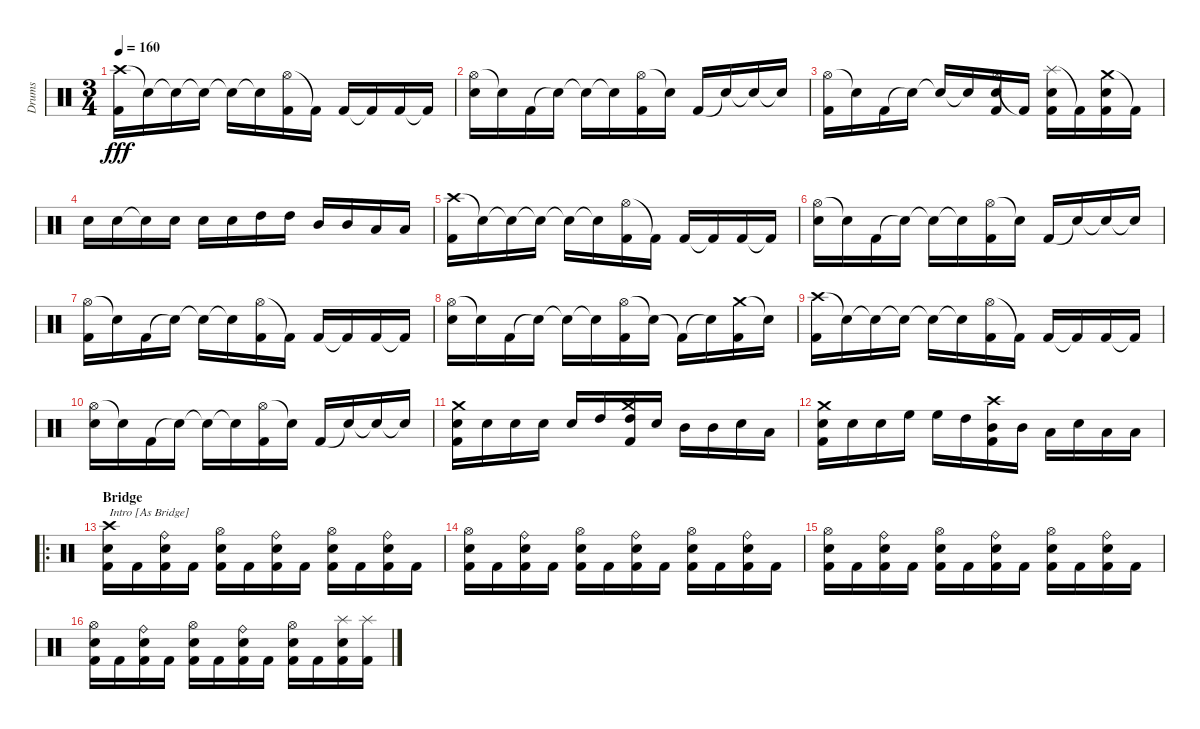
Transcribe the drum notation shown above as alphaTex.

\track ("Drums" "Drums") {instrument percussion}
\staff {score}
\articulation defaults
\ts (3 4)
\tempo 160
\clef neutral
\ks c
("Crash high (hit)" "Kick (hit) 2").16{dy fff} "Snare (hit)"{t}.16 "Snare (hit)"{t}.16 "Snare (hit)"{t}.16 "Snare (hit)"{t}.16 "Snare (hit)"{t}.16 ("Hi-Hat (open)" "Kick (hit) 2").16 "Kick (hit) 2"{t}.16 "Kick (hit) 2".16 "Kick (hit) 2"{t}.16 "Kick (hit) 2".16 "Kick (hit) 2"{t}.16 |
("Hi-Hat (open)" "Electric Snare (hit)").16 "Snare (hit)"{t}.16 "Kick (hit) 2".16 "Snare (hit)"{t}.16 "Snare (hit)"{t}.16 "Snare (hit)"{t}.16 ("Hi-Hat (open)" "Kick (hit) 2").16 "Snare (hit)"{t}.16 "Kick (hit) 2".16 "Snare (hit)"{t}.16 "Snare (hit)"{t}.16 "Snare (hit)"{t}.16 |
("Hi-Hat (open)" "Kick (hit) 2").16 "Snare (hit)"{t}.16 "Kick (hit) 2".16 "Snare (hit)"{t}.16 "Snare (hit)"{t}.16 "Snare (hit)"{t}.16 ("Hi-Hat (open)" "Electric Snare (hit)" "Kick (hit) 2").16 "Kick (hit) 2"{t}.16 ("Splash (hit)" "Electric Snare (hit)" "Kick (hit) 2").16 "Kick (hit) 2"{t}.16 ("Crash medium (hit)" "Electric Snare (hit)" "Kick (hit) 2").16 "Kick (hit) 2"{t}.16 |
"Electric Snare (hit)".16 "Electric Snare (hit)".16 "Snare (hit)"{t}.16 "Electric Snare (hit)".16 "Electric Snare (hit)".16 "Electric Snare (hit)".16 "High Tom (hit)".16 "High Tom (hit)".16 "Mid Tom (hit)".16 "Mid Tom (hit)".16 "Low Tom (hit)".16 "Low Tom (hit)".16 |
("Crash high (hit)" "Kick (hit) 2").16 "Snare (hit)"{t}.16 "Snare (hit)"{t}.16 "Snare (hit)"{t}.16 "Snare (hit)"{t}.16 "Snare (hit)"{t}.16 ("Hi-Hat (open)" "Kick (hit) 2").16 "Kick (hit) 2"{t}.16 "Kick (hit) 2".16 "Kick (hit) 2"{t}.16 "Kick (hit) 2".16 "Kick (hit) 2"{t}.16 |
("Hi-Hat (open)" "Electric Snare (hit)").16 "Snare (hit)"{t}.16 "Kick (hit) 2".16 "Snare (hit)"{t}.16 "Snare (hit)"{t}.16 "Snare (hit)"{t}.16 ("Hi-Hat (open)" "Kick (hit) 2").16 "Snare (hit)"{t}.16 "Kick (hit) 2".16 "Snare (hit)"{t}.16 "Snare (hit)"{t}.16 "Snare (hit)"{t}.16 |
("Hi-Hat (open)" "Kick (hit) 2").16 "Snare (hit)"{t}.16 "Kick (hit) 2".16 "Snare (hit)"{t}.16 "Snare (hit)"{t}.16 "Snare (hit)"{t}.16 ("Hi-Hat (open)" "Kick (hit) 2").16 "Kick (hit) 2"{t}.16 "Kick (hit) 2".16 "Kick (hit) 2"{t}.16 "Kick (hit) 2".16 "Kick (hit) 2"{t}.16 |
("Hi-Hat (open)" "Electric Snare (hit)").16 "Snare (hit)"{t}.16 "Kick (hit) 2".16 "Snare (hit)"{t}.16 "Snare (hit)"{t}.16 "Snare (hit)"{t}.16 ("Hi-Hat (open)" "Kick (hit) 2").16 "Snare (hit)"{t}.16 "Kick (hit) 2"{t}.16 "Snare (hit)"{t}.16 ("Crash medium (hit)" "Kick (hit) 2").16 "Snare (hit)"{t}.16 |
("Crash high (hit)" "Kick (hit) 2").16 "Snare (hit)"{t}.16 "Snare (hit)"{t}.16 "Snare (hit)"{t}.16 "Snare (hit)"{t}.16 "Snare (hit)"{t}.16 ("Hi-Hat (open)" "Kick (hit) 2").16 "Kick (hit) 2"{t}.16 "Kick (hit) 2".16 "Kick (hit) 2"{t}.16 "Kick (hit) 2".16 "Kick (hit) 2"{t}.16 |
("Hi-Hat (open)" "Electric Snare (hit)").16 "Snare (hit)"{t}.16 "Kick (hit) 2".16 "Snare (hit)"{t}.16 "Snare (hit)"{t}.16 "Snare (hit)"{t}.16 ("Hi-Hat (open)" "Kick (hit) 2").16 "Snare (hit)"{t}.16 "Kick (hit) 2".16 "Snare (hit)"{t}.16 "Snare (hit)"{t}.16 "Snare (hit)"{t}.16 |
("Crash medium (hit)" "Electric Snare (hit)" "Kick (hit) 2").16 "Electric Snare (hit)".16 "Electric Snare (hit)".16 "Electric Snare (hit)".16 "Electric Snare (hit)".16 "High Tom (hit)".16 ("Crash medium (hit)" "High Tom (hit)" "Kick (hit) 2").16 "Electric Snare (hit)".16 "Mid Tom (hit)".16 "Mid Tom (hit)".16 "Electric Snare (hit)".16 "Low Tom (hit)".16 |
("Crash medium (hit)" "Electric Snare (hit)" "Kick (hit) 2").16 "Electric Snare (hit)".16 "Electric Snare (hit)".16 "High Floor Tom (hit)".16 "High Floor Tom (hit)".16 "High Tom (hit)".16 ("Crash high (hit)" "Mid Tom (hit)" "Kick (hit) 2").16 "Mid Tom (hit)".16 "Low Tom (hit)".16 "Electric Snare (hit)".16 "Low Tom (hit)".16 "Low Tom (hit)".16 |
\ro
\section ("" "Bridge")
("Crash high (hit)" "Electric Snare (hit)" "Kick (hit) 2").16{txt "Intro [As Bridge]"} "Kick (hit) 2".16 ("Ride (bell)" "Electric Snare (hit)" "Kick (hit) 2").16 "Kick (hit) 2".16 ("Hi-Hat (open)" "Electric Snare (hit)" "Kick (hit) 2").16 "Kick (hit) 2".16 ("Ride (bell)" "Electric Snare (hit)" "Kick (hit) 2").16 "Kick (hit) 2".16 ("Hi-Hat (open)" "Electric Snare (hit)" "Kick (hit) 2").16 "Kick (hit) 2".16 ("Ride (bell)" "Electric Snare (hit)" "Kick (hit) 2").16 "Kick (hit) 2".16 |
("Hi-Hat (open)" "Electric Snare (hit)" "Kick (hit) 2").16 "Kick (hit) 2".16 ("Ride (bell)" "Electric Snare (hit)" "Kick (hit) 2").16 "Kick (hit) 2".16 ("Hi-Hat (open)" "Electric Snare (hit)" "Kick (hit) 2").16 "Kick (hit) 2".16 ("Ride (bell)" "Electric Snare (hit)" "Kick (hit) 2").16 "Kick (hit) 2".16 ("Hi-Hat (open)" "Electric Snare (hit)" "Kick (hit) 2").16 "Kick (hit) 2".16 ("Ride (bell)" "Electric Snare (hit)" "Kick (hit) 2").16 "Kick (hit) 2".16 |
("Hi-Hat (open)" "Electric Snare (hit)" "Kick (hit) 2").16 "Kick (hit) 2".16 ("Ride (bell)" "Electric Snare (hit)" "Kick (hit) 2").16 "Kick (hit) 2".16 ("Hi-Hat (open)" "Electric Snare (hit)" "Kick (hit) 2").16 "Kick (hit) 2".16 ("Ride (bell)" "Electric Snare (hit)" "Kick (hit) 2").16 "Kick (hit) 2".16 ("Hi-Hat (open)" "Electric Snare (hit)" "Kick (hit) 2").16 "Kick (hit) 2".16 ("Ride (bell)" "Electric Snare (hit)" "Kick (hit) 2").16 "Kick (hit) 2".16 |
("Hi-Hat (open)" "Electric Snare (hit)" "Kick (hit) 2").16 "Kick (hit) 2".16 ("Ride (bell)" "Electric Snare (hit)" "Kick (hit) 2").16 "Kick (hit) 2".16 ("Hi-Hat (open)" "Electric Snare (hit)" "Kick (hit) 2").16 "Kick (hit) 2".16 ("Ride (bell)" "Electric Snare (hit)" "Kick (hit) 2").16 "Kick (hit) 2".16 ("Hi-Hat (open)" "Electric Snare (hit)" "Kick (hit) 2").16 "Kick (hit) 2".16 ("Splash (hit)" "Electric Snare (hit)" "Kick (hit) 2").16 ("Splash (hit)" "Kick (hit) 2").16
